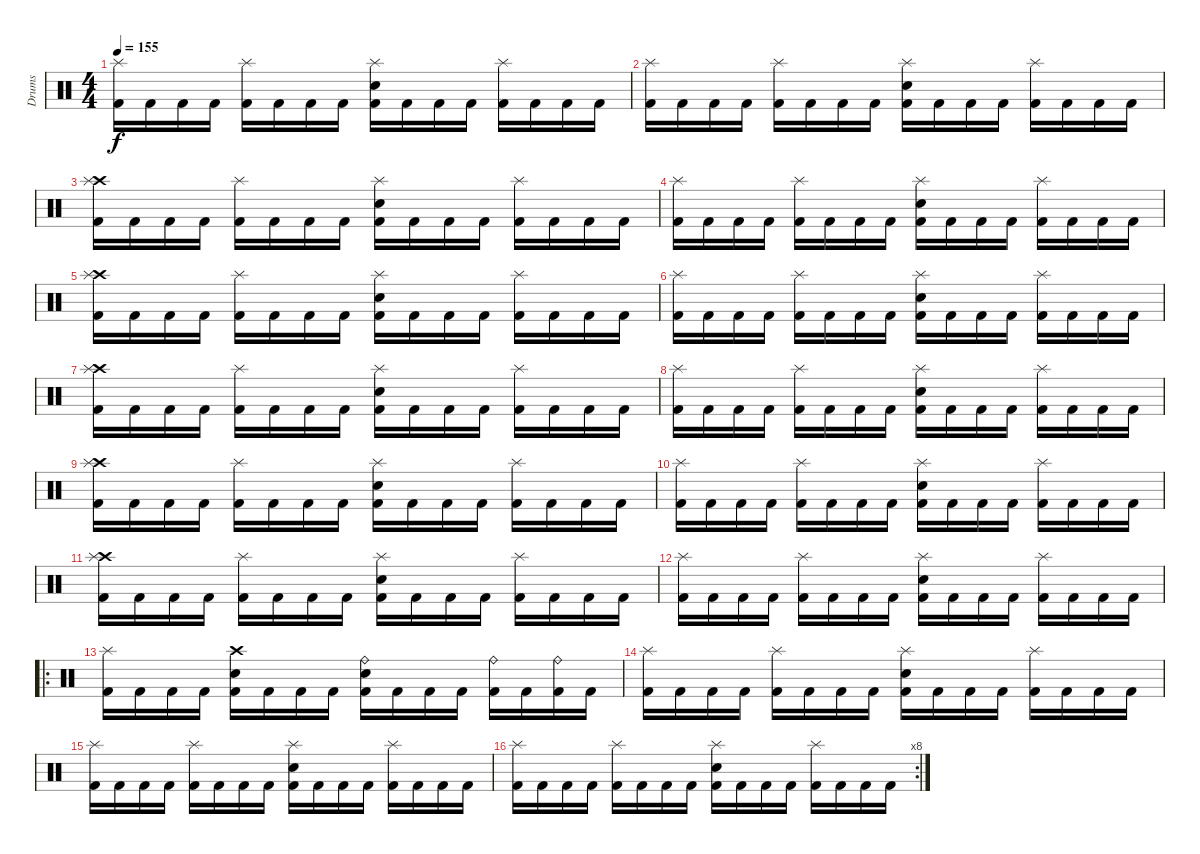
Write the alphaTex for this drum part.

\track ("Drums" "Drums") {instrument percussion}
\staff {score}
\articulation defaults
\ts (4 4)
\tempo 155
\clef neutral
\ks c
("Splash (hit)" "Kick (hit) 2").16{dy f} "Kick (hit) 2".16 "Kick (hit) 2".16 "Kick (hit) 2".16 ("Splash (hit)" "Kick (hit) 2").16 "Kick (hit) 2".16 "Kick (hit) 2".16 "Kick (hit) 2".16 ("Splash (hit)" "Electric Snare (hit)" "Kick (hit) 2").16 "Kick (hit) 2".16 "Kick (hit) 2".16 "Kick (hit) 2".16 ("Splash (hit)" "Kick (hit) 2").16 "Kick (hit) 2".16 "Kick (hit) 2".16 "Kick (hit) 2".16 |
("Splash (hit)" "Kick (hit) 2").16 "Kick (hit) 2".16 "Kick (hit) 2".16 "Kick (hit) 2".16 ("Splash (hit)" "Kick (hit) 2").16 "Kick (hit) 2".16 "Kick (hit) 2".16 "Kick (hit) 2".16 ("Splash (hit)" "Electric Snare (hit)" "Kick (hit) 2").16 "Kick (hit) 2".16 "Kick (hit) 2".16 "Kick (hit) 2".16 ("Splash (hit)" "Kick (hit) 2").16 "Kick (hit) 2".16 "Kick (hit) 2".16 "Kick (hit) 2".16 |
("Crash high (hit)" "Splash (hit)" "Kick (hit) 2").16 "Kick (hit) 2".16 "Kick (hit) 2".16 "Kick (hit) 2".16 ("Splash (hit)" "Kick (hit) 2").16 "Kick (hit) 2".16 "Kick (hit) 2".16 "Kick (hit) 2".16 ("Splash (hit)" "Electric Snare (hit)" "Kick (hit) 2").16 "Kick (hit) 2".16 "Kick (hit) 2".16 "Kick (hit) 2".16 ("Splash (hit)" "Kick (hit) 2").16 "Kick (hit) 2".16 "Kick (hit) 2".16 "Kick (hit) 2".16 |
("Splash (hit)" "Kick (hit) 2").16 "Kick (hit) 2".16 "Kick (hit) 2".16 "Kick (hit) 2".16 ("Splash (hit)" "Kick (hit) 2").16 "Kick (hit) 2".16 "Kick (hit) 2".16 "Kick (hit) 2".16 ("Splash (hit)" "Electric Snare (hit)" "Kick (hit) 2").16 "Kick (hit) 2".16 "Kick (hit) 2".16 "Kick (hit) 2".16 ("Splash (hit)" "Kick (hit) 2").16 "Kick (hit) 2".16 "Kick (hit) 2".16 "Kick (hit) 2".16 |
("Crash high (hit)" "Splash (hit)" "Kick (hit) 2").16 "Kick (hit) 2".16 "Kick (hit) 2".16 "Kick (hit) 2".16 ("Splash (hit)" "Kick (hit) 2").16 "Kick (hit) 2".16 "Kick (hit) 2".16 "Kick (hit) 2".16 ("Splash (hit)" "Electric Snare (hit)" "Kick (hit) 2").16 "Kick (hit) 2".16 "Kick (hit) 2".16 "Kick (hit) 2".16 ("Splash (hit)" "Kick (hit) 2").16 "Kick (hit) 2".16 "Kick (hit) 2".16 "Kick (hit) 2".16 |
("Splash (hit)" "Kick (hit) 2").16 "Kick (hit) 2".16 "Kick (hit) 2".16 "Kick (hit) 2".16 ("Splash (hit)" "Kick (hit) 2").16 "Kick (hit) 2".16 "Kick (hit) 2".16 "Kick (hit) 2".16 ("Splash (hit)" "Electric Snare (hit)" "Kick (hit) 2").16 "Kick (hit) 2".16 "Kick (hit) 2".16 "Kick (hit) 2".16 ("Splash (hit)" "Kick (hit) 2").16 "Kick (hit) 2".16 "Kick (hit) 2".16 "Kick (hit) 2".16 |
("Crash high (hit)" "Splash (hit)" "Kick (hit) 2").16 "Kick (hit) 2".16 "Kick (hit) 2".16 "Kick (hit) 2".16 ("Splash (hit)" "Kick (hit) 2").16 "Kick (hit) 2".16 "Kick (hit) 2".16 "Kick (hit) 2".16 ("Splash (hit)" "Electric Snare (hit)" "Kick (hit) 2").16 "Kick (hit) 2".16 "Kick (hit) 2".16 "Kick (hit) 2".16 ("Splash (hit)" "Kick (hit) 2").16 "Kick (hit) 2".16 "Kick (hit) 2".16 "Kick (hit) 2".16 |
("Splash (hit)" "Kick (hit) 2").16 "Kick (hit) 2".16 "Kick (hit) 2".16 "Kick (hit) 2".16 ("Splash (hit)" "Kick (hit) 2").16 "Kick (hit) 2".16 "Kick (hit) 2".16 "Kick (hit) 2".16 ("Splash (hit)" "Electric Snare (hit)" "Kick (hit) 2").16 "Kick (hit) 2".16 "Kick (hit) 2".16 "Kick (hit) 2".16 ("Splash (hit)" "Kick (hit) 2").16 "Kick (hit) 2".16 "Kick (hit) 2".16 "Kick (hit) 2".16 |
("Crash high (hit)" "Splash (hit)" "Kick (hit) 2").16 "Kick (hit) 2".16 "Kick (hit) 2".16 "Kick (hit) 2".16 ("Splash (hit)" "Kick (hit) 2").16 "Kick (hit) 2".16 "Kick (hit) 2".16 "Kick (hit) 2".16 ("Splash (hit)" "Electric Snare (hit)" "Kick (hit) 2").16 "Kick (hit) 2".16 "Kick (hit) 2".16 "Kick (hit) 2".16 ("Splash (hit)" "Kick (hit) 2").16 "Kick (hit) 2".16 "Kick (hit) 2".16 "Kick (hit) 2".16 |
("Splash (hit)" "Kick (hit) 2").16 "Kick (hit) 2".16 "Kick (hit) 2".16 "Kick (hit) 2".16 ("Splash (hit)" "Kick (hit) 2").16 "Kick (hit) 2".16 "Kick (hit) 2".16 "Kick (hit) 2".16 ("Splash (hit)" "Electric Snare (hit)" "Kick (hit) 2").16 "Kick (hit) 2".16 "Kick (hit) 2".16 "Kick (hit) 2".16 ("Splash (hit)" "Kick (hit) 2").16 "Kick (hit) 2".16 "Kick (hit) 2".16 "Kick (hit) 2".16 |
("Crash high (hit)" "Splash (hit)" "Kick (hit) 2").16 "Kick (hit) 2".16 "Kick (hit) 2".16 "Kick (hit) 2".16 ("Splash (hit)" "Kick (hit) 2").16 "Kick (hit) 2".16 "Kick (hit) 2".16 "Kick (hit) 2".16 ("Splash (hit)" "Electric Snare (hit)" "Kick (hit) 2").16 "Kick (hit) 2".16 "Kick (hit) 2".16 "Kick (hit) 2".16 ("Splash (hit)" "Kick (hit) 2").16 "Kick (hit) 2".16 "Kick (hit) 2".16 "Kick (hit) 2".16 |
("Splash (hit)" "Kick (hit) 2").16 "Kick (hit) 2".16 "Kick (hit) 2".16 "Kick (hit) 2".16 ("Splash (hit)" "Kick (hit) 2").16 "Kick (hit) 2".16 "Kick (hit) 2".16 "Kick (hit) 2".16 ("Splash (hit)" "Electric Snare (hit)" "Kick (hit) 2").16 "Kick (hit) 2".16 "Kick (hit) 2".16 "Kick (hit) 2".16 ("Splash (hit)" "Kick (hit) 2").16 "Kick (hit) 2".16 "Kick (hit) 2".16 "Kick (hit) 2".16 |
\ro
("Splash (hit)" "Kick (hit) 2").16 "Kick (hit) 2".16 "Kick (hit) 2".16 "Kick (hit) 2".16 ("Crash high (hit)" "Electric Snare (hit)" "Kick (hit) 2").16 "Kick (hit) 2".16 "Kick (hit) 2".16 "Kick (hit) 2".16 ("Ride (bell)" "Electric Snare (hit)" "Kick (hit) 2").16 "Kick (hit) 2".16 "Kick (hit) 2".16 "Kick (hit) 2".16 ("Ride (bell)" "Kick (hit) 2").16 "Kick (hit) 2".16 ("Ride (bell)" "Kick (hit) 2").16 "Kick (hit) 2".16 |
("Splash (hit)" "Kick (hit) 2").16 "Kick (hit) 2".16 "Kick (hit) 2".16 "Kick (hit) 2".16 ("Splash (hit)" "Kick (hit) 2").16 "Kick (hit) 2".16 "Kick (hit) 2".16 "Kick (hit) 2".16 ("Splash (hit)" "Electric Snare (hit)" "Kick (hit) 2").16 "Kick (hit) 2".16 "Kick (hit) 2".16 "Kick (hit) 2".16 ("Splash (hit)" "Kick (hit) 2").16 "Kick (hit) 2".16 "Kick (hit) 2".16 "Kick (hit) 2".16 |
("Splash (hit)" "Kick (hit) 2").16 "Kick (hit) 2".16 "Kick (hit) 2".16 "Kick (hit) 2".16 ("Splash (hit)" "Kick (hit) 2").16 "Kick (hit) 2".16 "Kick (hit) 2".16 "Kick (hit) 2".16 ("Splash (hit)" "Electric Snare (hit)" "Kick (hit) 2").16 "Kick (hit) 2".16 "Kick (hit) 2".16 "Kick (hit) 2".16 ("Splash (hit)" "Kick (hit) 2").16 "Kick (hit) 2".16 "Kick (hit) 2".16 "Kick (hit) 2".16 |
\rc 8
("Splash (hit)" "Kick (hit) 2").16 "Kick (hit) 2".16 "Kick (hit) 2".16 "Kick (hit) 2".16 ("Splash (hit)" "Kick (hit) 2").16 "Kick (hit) 2".16 "Kick (hit) 2".16 "Kick (hit) 2".16 ("Splash (hit)" "Electric Snare (hit)" "Kick (hit) 2").16 "Kick (hit) 2".16 "Kick (hit) 2".16 "Kick (hit) 2".16 ("Splash (hit)" "Kick (hit) 2").16 "Kick (hit) 2".16 "Kick (hit) 2".16 "Kick (hit) 2".16
